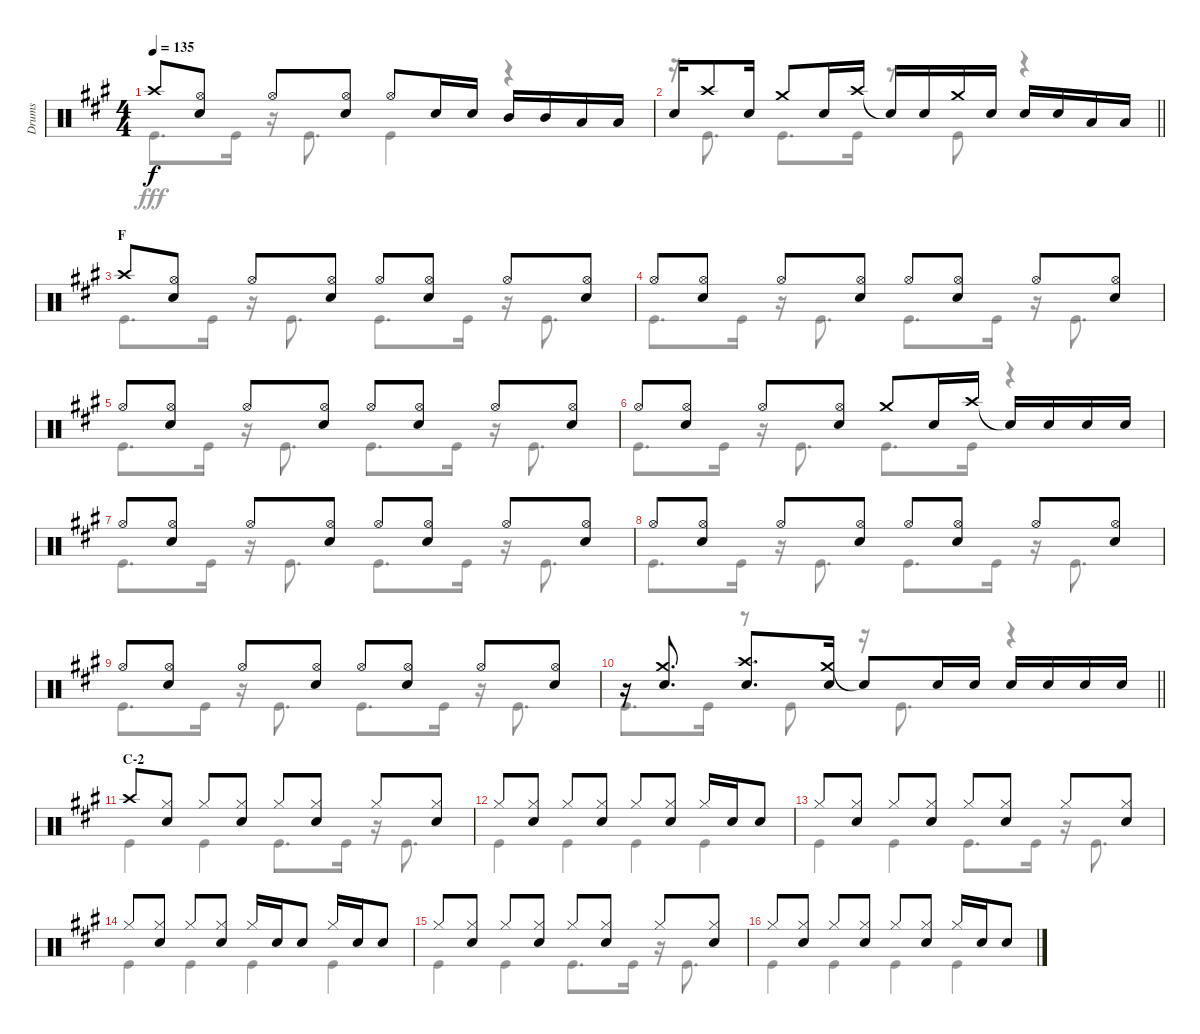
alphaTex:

\track ("Drums" "Drums") {instrument percussion}
\staff {score}
\articulation defaults
\voice
\ts (4 4)
\tempo 135
\clef neutral
\ks a "Crash high (hit)".8{dy f}
("Hi-Hat (open)" "Snare (hit) 2").8 "Hi-Hat (open)".8 ("Hi-Hat (open)" "Snare (hit) 2").8 "Hi-Hat (open)".8 "Snare (hit) 2".16 "Snare (hit) 2".16 "Mid Tom (hit)".16 "Mid Tom (hit)".16 "Low Tom (hit)".16 "Low Tom (hit)".16 |
\barLineRight lightlight "Snare (hit) 2".16 "Crash high (hit)".8 "Snare (hit) 2".16 "Crash medium (hit)".8 "Snare (hit) 2".16 "Crash high (hit)".16 "Snare (hit)"{t}.16 "Snare (hit) 2".16 "Crash medium (hit)".16 "Snare (hit) 2".16 "Snare (hit) 2".16 "Snare (hit) 2".16 "Low Tom (hit)".16 "Low Tom (hit)".16
|
\section ("" "F")
"Crash high (hit)".8 ("Hi-Hat (open)" "Snare (hit) 2").8 "Hi-Hat (open)".8 ("Hi-Hat (open)" "Snare (hit) 2").8 "Hi-Hat (open)".8 ("Hi-Hat (open)" "Snare (hit) 2").8 "Hi-Hat (open)".8 ("Hi-Hat (open)" "Snare (hit) 2").8 |
"Hi-Hat (open)".8 ("Hi-Hat (open)" "Snare (hit) 2").8 "Hi-Hat (open)".8 ("Hi-Hat (open)" "Snare (hit) 2").8 "Hi-Hat (open)".8 ("Hi-Hat (open)" "Snare (hit) 2").8 "Hi-Hat (open)".8 ("Hi-Hat (open)" "Snare (hit) 2").8 |
"Hi-Hat (open)".8 ("Hi-Hat (open)" "Snare (hit) 2").8 "Hi-Hat (open)".8 ("Hi-Hat (open)" "Snare (hit) 2").8 "Hi-Hat (open)".8 ("Hi-Hat (open)" "Snare (hit) 2").8 "Hi-Hat (open)".8 ("Hi-Hat (open)" "Snare (hit) 2").8 |
"Hi-Hat (open)".8 ("Hi-Hat (open)" "Snare (hit) 2").8 "Hi-Hat (open)".8 ("Hi-Hat (open)" "Snare (hit) 2").8 "Crash medium (hit)".8 "Snare (hit) 2".16 "Crash high (hit)".16 "Snare (hit)"{t}.16 "Snare (hit) 2".16 "Snare (hit) 2".16 "Snare (hit) 2".16 |
"Hi-Hat (open)".8 ("Hi-Hat (open)" "Snare (hit) 2").8 "Hi-Hat (open)".8 ("Hi-Hat (open)" "Snare (hit) 2").8 "Hi-Hat (open)".8 ("Hi-Hat (open)" "Snare (hit) 2").8 "Hi-Hat (open)".8 ("Hi-Hat (open)" "Snare (hit) 2").8 |
"Hi-Hat (open)".8 ("Hi-Hat (open)" "Snare (hit) 2").8 "Hi-Hat (open)".8 ("Hi-Hat (open)" "Snare (hit) 2").8 "Hi-Hat (open)".8 ("Hi-Hat (open)" "Snare (hit) 2").8 "Hi-Hat (open)".8 ("Hi-Hat (open)" "Snare (hit) 2").8 |
"Hi-Hat (open)".8 ("Hi-Hat (open)" "Snare (hit) 2").8 "Hi-Hat (open)".8 ("Hi-Hat (open)" "Snare (hit) 2").8 "Hi-Hat (open)".8 ("Hi-Hat (open)" "Snare (hit) 2").8 "Hi-Hat (open)".8 ("Hi-Hat (open)" "Snare (hit) 2").8 |
\barLineRight lightlight
r.16 ("Crash medium (hit)" "Snare (hit) 2").8{d} ("Crash high (hit)" "Snare (hit) 2").8{d} ("Crash medium (hit)" "Snare (hit) 2").16 "Snare (hit)"{t}.8 "Snare (hit) 2".16 "Snare (hit) 2".16 "Snare (hit) 2".16 "Snare (hit) 2".16 "Snare (hit) 2".16 "Snare (hit) 2".16 |
\section ("" "C-2")
"Crash high (hit)".8 ("Hi-Hat (closed)" "Snare (hit) 2").8 "Hi-Hat (closed)".8 ("Hi-Hat (closed)" "Snare (hit) 2").8 "Hi-Hat (closed)".8 ("Hi-Hat (closed)" "Snare (hit) 2").8 "Hi-Hat (closed)".8 ("Hi-Hat (closed)" "Snare (hit) 2").8 |
"Hi-Hat (closed)".8 ("Hi-Hat (closed)" "Snare (hit) 2").8 "Hi-Hat (closed)".8 ("Hi-Hat (closed)" "Snare (hit) 2").8 "Hi-Hat (closed)".8 ("Hi-Hat (closed)" "Snare (hit) 2").8 "Hi-Hat (closed)".16 "Snare (hit) 2".16 "Snare (hit) 2".8 |
"Hi-Hat (closed)".8 ("Hi-Hat (closed)" "Snare (hit) 2").8 "Hi-Hat (closed)".8 ("Hi-Hat (closed)" "Snare (hit) 2").8 "Hi-Hat (closed)".8 ("Hi-Hat (closed)" "Snare (hit) 2").8 "Hi-Hat (closed)".8 ("Hi-Hat (closed)" "Snare (hit) 2").8 |
"Hi-Hat (closed)".8 ("Hi-Hat (closed)" "Snare (hit) 2").8 "Hi-Hat (closed)".8 ("Hi-Hat (closed)" "Snare (hit) 2").8 "Hi-Hat (closed)".16 "Snare (hit) 2".16 "Snare (hit) 2".8 "Hi-Hat (closed)".16 "Snare (hit) 2".16 "Snare (hit) 2".8 |
"Hi-Hat (closed)".8 ("Hi-Hat (closed)" "Snare (hit) 2").8 "Hi-Hat (closed)".8 ("Hi-Hat (closed)" "Snare (hit) 2").8 "Hi-Hat (closed)".8 ("Hi-Hat (closed)" "Snare (hit) 2").8 "Hi-Hat (closed)".8 ("Hi-Hat (closed)" "Snare (hit) 2").8 |
"Hi-Hat (closed)".8 ("Hi-Hat (closed)" "Snare (hit) 2").8 "Hi-Hat (closed)".8 ("Hi-Hat (closed)" "Snare (hit) 2").8 "Hi-Hat (closed)".8 ("Hi-Hat (closed)" "Snare (hit) 2").8 "Hi-Hat (closed)".16 "Snare (hit) 2".16 "Snare (hit) 2".8
\voice
\clef neutral
\ottava regular
\simile none
\ks a "Kick (hit)".8{d dy fff} "Kick (hit)".16
r.16 "Kick (hit)".8{d} "Kick (hit)".4 r.4 |
\barLineRight lightlight
r.16 "Kick (hit)".8{d} "Kick (hit)".8{d} "Kick (hit)".16 r.8 "Kick (hit)".8 r.4 |
"Kick (hit)".8{d} "Kick (hit)".16 r.16 "Kick (hit)".8{d} "Kick (hit)".8{d} "Kick (hit)".16 r.16 "Kick (hit)".8{d} |
"Kick (hit)".8{d} "Kick (hit)".16 r.16 "Kick (hit)".8{d} "Kick (hit)".8{d} "Kick (hit)".16 r.16 "Kick (hit)".8{d} |
"Kick (hit)".8{d} "Kick (hit)".16 r.16 "Kick (hit)".8{d} "Kick (hit)".8{d} "Kick (hit)".16 r.16 "Kick (hit)".8{d} |
"Kick (hit)".8{d} "Kick (hit)".16 r.16 "Kick (hit)".8{d} "Kick (hit)".8{d} "Kick (hit)".16 r.4 |
"Kick (hit)".8{d} "Kick (hit)".16 r.16 "Kick (hit)".8{d} "Kick (hit)".8{d} "Kick (hit)".16 r.16 "Kick (hit)".8{d} |
"Kick (hit)".8{d} "Kick (hit)".16 r.16 "Kick (hit)".8{d} "Kick (hit)".8{d} "Kick (hit)".16 r.16 "Kick (hit)".8{d} |
"Kick (hit)".8{d} "Kick (hit)".16 r.16 "Kick (hit)".8{d} "Kick (hit)".8{d} "Kick (hit)".16 r.16 "Kick (hit)".8{d} |
\barLineRight lightlight "Kick (hit)".8{d} "Kick (hit)".16
r.8 "Kick (hit)".8 r.16 "Kick (hit)".8{d} r.4 |
"Kick (hit)".4 "Kick (hit)".4 "Kick (hit)".8{d} "Kick (hit)".16 r.16 "Kick (hit)".8{d} |
"Kick (hit)".4 "Kick (hit)".4 "Kick (hit)".4 "Kick (hit)".4 |
"Kick (hit)".4 "Kick (hit)".4 "Kick (hit)".8{d} "Kick (hit)".16 r.16 "Kick (hit)".8{d} |
"Kick (hit)".4 "Kick (hit)".4 "Kick (hit)".4 "Kick (hit)".4 |
"Kick (hit)".4 "Kick (hit)".4 "Kick (hit)".8{d} "Kick (hit)".16 r.16 "Kick (hit)".8{d} |
"Kick (hit)".4 "Kick (hit)".4 "Kick (hit)".4 "Kick (hit)".4
